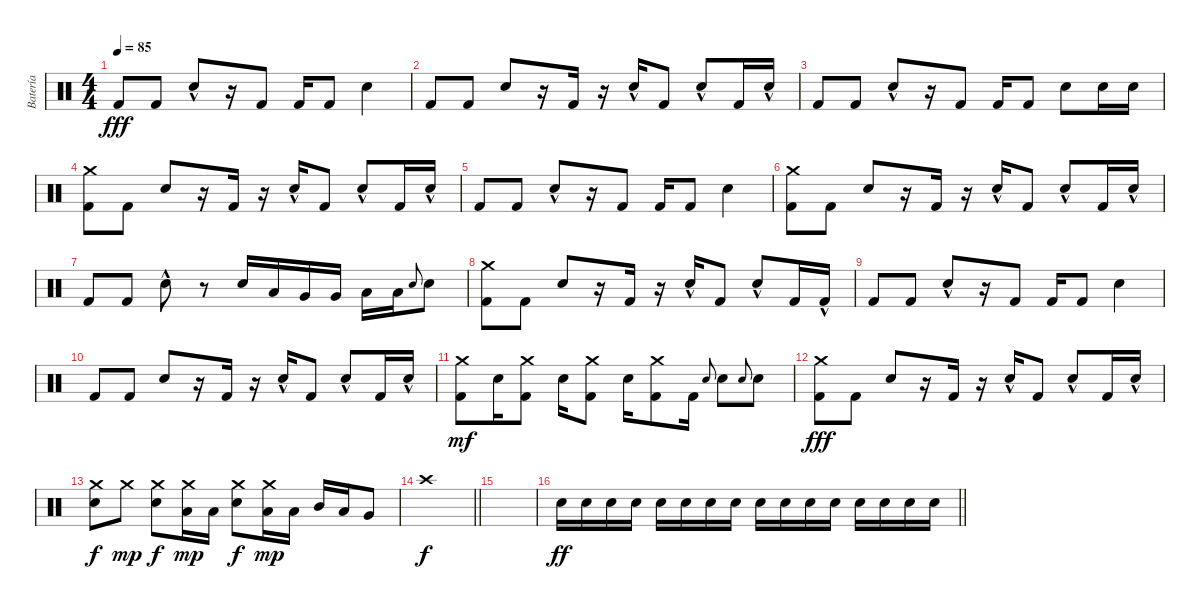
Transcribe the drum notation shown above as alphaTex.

\track ("Batería" "Batería") {instrument percussion}
\staff {score}
\articulation defaults
\ts (4 4)
\tempo 85
\clef neutral
\ks c "Kick (hit) 2".8{dy fff} "Kick (hit) 2".8 "Electric Snare (hit)"{hac}.8
r.16 "Kick (hit) 2".8 "Kick (hit) 2".16 "Kick (hit) 2".8 "Electric Snare (hit)".4 |
"Kick (hit) 2".8 "Kick (hit) 2".8 "Electric Snare (hit)".8 r.16 "Kick (hit) 2".16 r.16 "Electric Snare (hit)"{hac}.16 "Kick (hit) 2".8 "Electric Snare (hit)"{hac}.8 "Kick (hit) 2".16 "Electric Snare (hit)"{hac}.16 |
"Kick (hit) 2".8 "Kick (hit) 2".8 "Electric Snare (hit)"{hac}.8 r.16 "Kick (hit) 2".8 "Kick (hit) 2".16 "Kick (hit) 2".8 "Electric Snare (hit)".8 "Electric Snare (hit)".16 "Electric Snare (hit)".16 |
("Kick (hit) 2" "Crash medium (hit)").8 "Kick (hit) 2".8 "Electric Snare (hit)".8 r.16 "Kick (hit) 2".16 r.16 "Electric Snare (hit)"{hac}.16 "Kick (hit) 2".8 "Electric Snare (hit)"{hac}.8 "Kick (hit) 2".16 "Electric Snare (hit)"{hac}.16 |
"Kick (hit) 2".8 "Kick (hit) 2".8 "Electric Snare (hit)"{hac}.8 r.16 "Kick (hit) 2".8 "Kick (hit) 2".16 "Kick (hit) 2".8 "Electric Snare (hit)".4 |
("Kick (hit) 2" "Crash medium (hit)").8 "Kick (hit) 2".8 "Electric Snare (hit)".8 r.16 "Kick (hit) 2".16 r.16 "Electric Snare (hit)"{hac}.16 "Kick (hit) 2".8 "Electric Snare (hit)"{hac}.8 "Kick (hit) 2".16 "Electric Snare (hit)"{hac}.16 |
"Kick (hit) 2".8 "Kick (hit) 2".8 "Electric Snare (hit)"{hac}.8 r.8 "Electric Snare (hit)".16 "Low Tom (hit)".16 "Very Low Tom (hit)".16 "Very Low Tom (hit)".16 "Low Floor Tom (hit)".16 "Low Floor Tom (hit)".16 "Electric Snare (hit)".8{gr onbeat} "Electric Snare (hit)".8 |
("Kick (hit) 2" "Crash medium (hit)").8 "Kick (hit) 2".8 "Electric Snare (hit)".8 r.16 "Kick (hit) 2".16 r.16 "Electric Snare (hit)"{hac}.16 "Kick (hit) 2".8 "Electric Snare (hit)"{hac}.8 "Kick (hit) 2".16 "Kick (hit) 2"{hac}.16 |
"Kick (hit) 2".8 "Kick (hit) 2".8 "Electric Snare (hit)"{hac}.8 r.16 "Kick (hit) 2".8 "Kick (hit) 2".16 "Kick (hit) 2".8 "Electric Snare (hit)".4 |
"Kick (hit) 2".8 "Kick (hit) 2".8 "Electric Snare (hit)".8 r.16 "Kick (hit) 2".16 r.16 "Electric Snare (hit)"{hac}.16 "Kick (hit) 2".8 "Electric Snare (hit)"{hac}.8 "Kick (hit) 2".16 "Electric Snare (hit)"{hac}.16 |
("Kick (hit) 2" "Crash medium (hit)").8{dy mf} "Electric Snare (hit)".16 ("Kick (hit) 2" "Crash medium (hit)").8 "Electric Snare (hit)".16 ("Kick (hit) 2" "Crash medium (hit)").8 "Electric Snare (hit)".16 ("Kick (hit) 2" "Crash medium (hit)").8 "Kick (hit) 2".16 "Electric Snare (hit)".8{gr onbeat} "Electric Snare (hit)".8 "Electric Snare (hit)".8{gr onbeat} "Electric Snare (hit)".8 |
("Kick (hit) 2" "Crash medium (hit)").8{dy fff} "Kick (hit) 2".8 "Electric Snare (hit)".8 r.16 "Kick (hit) 2".16 r.16 "Electric Snare (hit)"{hac}.16 "Kick (hit) 2".8 "Electric Snare (hit)"{hac}.8 "Kick (hit) 2".16 "Electric Snare (hit)"{hac}.16 |
("Electric Snare (hit)" "Crash medium (hit)").8{dy f} "Crash medium (hit)".8{dy mp} ("Electric Snare (hit)" "Crash medium (hit)").8{dy f} ("Low Tom (hit)" "Crash medium (hit)").16{dy mp} "Low Tom (hit)".16 ("Electric Snare (hit)" "Crash medium (hit)").8{dy f} ("Crash medium (hit)" "Low Tom (hit)").16{dy mp} "Low Tom (hit)".16 "Mid Tom (hit)".16 "Low Tom (hit)".16 "Very Low Tom (hit)".8 |
\barLineRight lightlight "Crash high (hit)".1{dy f}
|
|
\barLineRight lightlight "Electric Snare (hit)".16{dy ff volume 16} "Electric Snare (hit)".16 "Electric Snare (hit)".16 "Electric Snare (hit)".16 "Electric Snare (hit)".16 "Electric Snare (hit)".16 "Electric Snare (hit)".16 "Electric Snare (hit)".16 "Electric Snare (hit)".16 "Electric Snare (hit)".16 "Electric Snare (hit)".16 "Electric Snare (hit)".16 "Electric Snare (hit)".16 "Electric Snare (hit)".16 "Electric Snare (hit)".16 "Electric Snare (hit)".16
